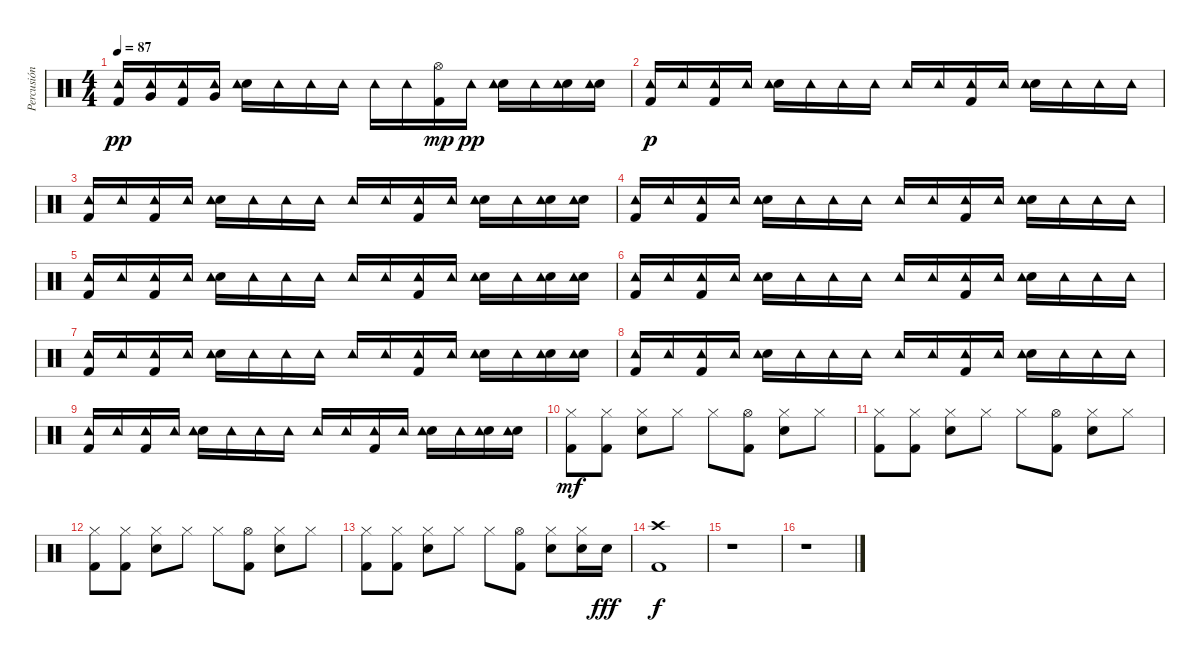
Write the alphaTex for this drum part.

\track ("Percusión" "Percusión") {instrument percussion}
\staff {score}
\articulation defaults
\ts (4 4)
\tempo 87
\clef neutral
\ks c
("Kick (hit) 2" "Tambourine (hit)").16{dy pp} ("Very Low Tom (hit)" "Tambourine (hit)").16 ("Kick (hit) 2" "Tambourine (hit)").16 ("Very Low Tom (hit)" "Tambourine (hit)").16 ("Electric Snare (hit)" "Tambourine (hit)").16 "Tambourine (hit)".16 "Tambourine (hit)".16 "Tambourine (hit)".16 "Tambourine (hit)".16 "Tambourine (hit)".16 ("Kick (hit) 2" "Hi-Hat (open)").16{dy mp} "Tambourine (hit)".16{dy pp} ("Electric Snare (hit)" "Tambourine (hit)").16 "Tambourine (hit)".16 ("Snare (hit) 2" "Tambourine (hit)").16 ("Snare (hit) 2" "Tambourine (hit)").16 |
("Kick (hit) 2" "Tambourine (hit)").16{dy p volume 13} "Tambourine (hit)".16 ("Kick (hit) 2" "Tambourine (hit)").16 "Tambourine (hit)".16 ("Snare (hit) 2" "Tambourine (hit)").16 "Tambourine (hit)".16 "Tambourine (hit)".16 "Tambourine (hit)".16 "Tambourine (hit)".16 "Tambourine (hit)".16 ("Kick (hit) 2" "Tambourine (hit)").16 "Tambourine (hit)".16 ("Snare (hit) 2" "Tambourine (hit)").16 "Tambourine (hit)".16 "Tambourine (hit)".16 "Tambourine (hit)".16 |
("Kick (hit) 2" "Tambourine (hit)").16 "Tambourine (hit)".16 ("Kick (hit) 2" "Tambourine (hit)").16 "Tambourine (hit)".16 ("Snare (hit) 2" "Tambourine (hit)").16 "Tambourine (hit)".16 "Tambourine (hit)".16 "Tambourine (hit)".16 "Tambourine (hit)".16 "Tambourine (hit)".16 ("Kick (hit) 2" "Tambourine (hit)").16 "Tambourine (hit)".16 ("Snare (hit) 2" "Tambourine (hit)").16 "Tambourine (hit)".16 ("Snare (hit) 2" "Tambourine (hit)").16 ("Snare (hit) 2" "Tambourine (hit)").16 |
("Kick (hit) 2" "Tambourine (hit)").16 "Tambourine (hit)".16 ("Kick (hit) 2" "Tambourine (hit)").16 "Tambourine (hit)".16 ("Snare (hit) 2" "Tambourine (hit)").16 "Tambourine (hit)".16 "Tambourine (hit)".16 "Tambourine (hit)".16 "Tambourine (hit)".16 "Tambourine (hit)".16 ("Kick (hit) 2" "Tambourine (hit)").16 "Tambourine (hit)".16 ("Snare (hit) 2" "Tambourine (hit)").16 "Tambourine (hit)".16 "Tambourine (hit)".16 "Tambourine (hit)".16 |
("Kick (hit) 2" "Tambourine (hit)").16 "Tambourine (hit)".16 ("Kick (hit) 2" "Tambourine (hit)").16 "Tambourine (hit)".16 ("Snare (hit) 2" "Tambourine (hit)").16 "Tambourine (hit)".16 "Tambourine (hit)".16 "Tambourine (hit)".16 "Tambourine (hit)".16 "Tambourine (hit)".16 ("Kick (hit) 2" "Tambourine (hit)").16 "Tambourine (hit)".16 ("Snare (hit) 2" "Tambourine (hit)").16 "Tambourine (hit)".16 ("Snare (hit) 2" "Tambourine (hit)").16 ("Snare (hit) 2" "Tambourine (hit)").16 |
("Kick (hit) 2" "Tambourine (hit)").16 "Tambourine (hit)".16 ("Kick (hit) 2" "Tambourine (hit)").16 "Tambourine (hit)".16 ("Snare (hit) 2" "Tambourine (hit)").16 "Tambourine (hit)".16 "Tambourine (hit)".16 "Tambourine (hit)".16 "Tambourine (hit)".16 "Tambourine (hit)".16 ("Kick (hit) 2" "Tambourine (hit)").16 "Tambourine (hit)".16 ("Snare (hit) 2" "Tambourine (hit)").16 "Tambourine (hit)".16 "Tambourine (hit)".16 "Tambourine (hit)".16 |
("Kick (hit) 2" "Tambourine (hit)").16 "Tambourine (hit)".16 ("Kick (hit) 2" "Tambourine (hit)").16 "Tambourine (hit)".16 ("Snare (hit) 2" "Tambourine (hit)").16 "Tambourine (hit)".16 "Tambourine (hit)".16 "Tambourine (hit)".16 "Tambourine (hit)".16 "Tambourine (hit)".16 ("Kick (hit) 2" "Tambourine (hit)").16 "Tambourine (hit)".16 ("Snare (hit) 2" "Tambourine (hit)").16 "Tambourine (hit)".16 ("Snare (hit) 2" "Tambourine (hit)").16 ("Snare (hit) 2" "Tambourine (hit)").16 |
("Kick (hit) 2" "Tambourine (hit)").16 "Tambourine (hit)".16 ("Kick (hit) 2" "Tambourine (hit)").16 "Tambourine (hit)".16 ("Snare (hit) 2" "Tambourine (hit)").16 "Tambourine (hit)".16 "Tambourine (hit)".16 "Tambourine (hit)".16 "Tambourine (hit)".16 "Tambourine (hit)".16 ("Kick (hit) 2" "Tambourine (hit)").16 "Tambourine (hit)".16 ("Snare (hit) 2" "Tambourine (hit)").16 "Tambourine (hit)".16 "Tambourine (hit)".16 "Tambourine (hit)".16 |
("Kick (hit) 2" "Tambourine (hit)").16 "Tambourine (hit)".16 ("Kick (hit) 2" "Tambourine (hit)").16 "Tambourine (hit)".16 ("Snare (hit) 2" "Tambourine (hit)").16 "Tambourine (hit)".16 "Tambourine (hit)".16 "Tambourine (hit)".16 "Tambourine (hit)".16 "Tambourine (hit)".16 ("Kick (hit) 2" "Tambourine (hit)").16 "Tambourine (hit)".16 ("Snare (hit) 2" "Tambourine (hit)").16 "Tambourine (hit)".16 ("Snare (hit) 2" "Tambourine (hit)").16 ("Snare (hit) 2" "Tambourine (hit)").16 |
("Kick (hit) 2" "Hi-Hat (closed)").8{dy mf} ("Kick (hit) 2" "Hi-Hat (closed)").8 ("Snare (hit) 2" "Hi-Hat (closed)").8 "Hi-Hat (closed)".8 "Hi-Hat (closed)".8 ("Kick (hit) 2" "Hi-Hat (open)").8 ("Snare (hit) 2" "Hi-Hat (closed)").8 "Hi-Hat (closed)".8 |
("Kick (hit) 2" "Hi-Hat (closed)").8 ("Kick (hit) 2" "Hi-Hat (closed)").8 ("Snare (hit) 2" "Hi-Hat (closed)").8 "Hi-Hat (closed)".8 "Hi-Hat (closed)".8 ("Kick (hit) 2" "Hi-Hat (open)").8 ("Snare (hit) 2" "Hi-Hat (closed)").8 "Hi-Hat (closed)".8 |
("Kick (hit) 2" "Hi-Hat (closed)").8 ("Kick (hit) 2" "Hi-Hat (closed)").8 ("Snare (hit) 2" "Hi-Hat (closed)").8 "Hi-Hat (closed)".8 "Hi-Hat (closed)".8 ("Kick (hit) 2" "Hi-Hat (open)").8 ("Snare (hit) 2" "Hi-Hat (closed)").8 "Hi-Hat (closed)".8 |
("Kick (hit) 2" "Hi-Hat (closed)").8 ("Kick (hit) 2" "Hi-Hat (closed)").8 ("Snare (hit) 2" "Hi-Hat (closed)").8 "Hi-Hat (closed)".8 "Hi-Hat (closed)".8 ("Kick (hit) 2" "Hi-Hat (open)").8 ("Snare (hit) 2" "Hi-Hat (closed)").8 ("Snare (hit) 2" "Hi-Hat (closed)").16 "Snare (hit) 2".16{dy fff} |
("Crash high (hit)" "Kick (hit) 2").1{dy f} |
r.1 |
r.1
